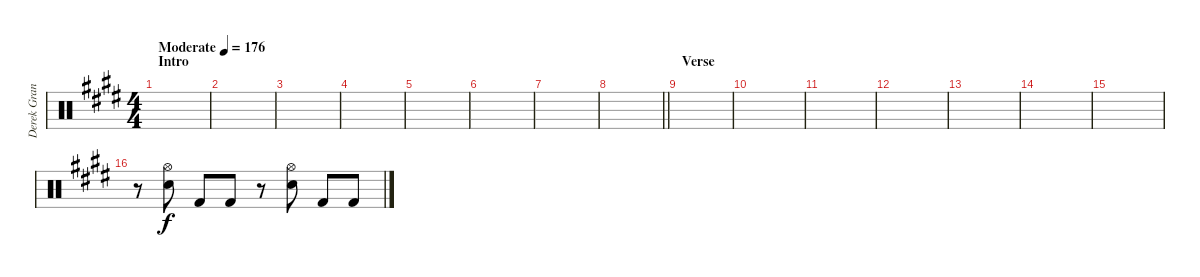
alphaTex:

\track ("Derek Grant - Drums" "Derek Gran") {instrument percussion}
\staff {score}
\articulation defaults
\ts (4 4)
\section ("" "Intro")
\tempo (176 "Moderate")
\clef neutral
\ks e
|
|
|
|
|
|
|
\barLineRight lightlight
|
\section ("" "Verse")
|
|
|
|
|
|
|
r.8 ("Snare (hit) 2" "Hi-Hat (open)").8 "Kick (hit) 2".8 "Kick (hit) 2".8 r.8 ("Snare (hit) 2" "Hi-Hat (open)").8 "Kick (hit) 2".8 "Kick (hit) 2".8
